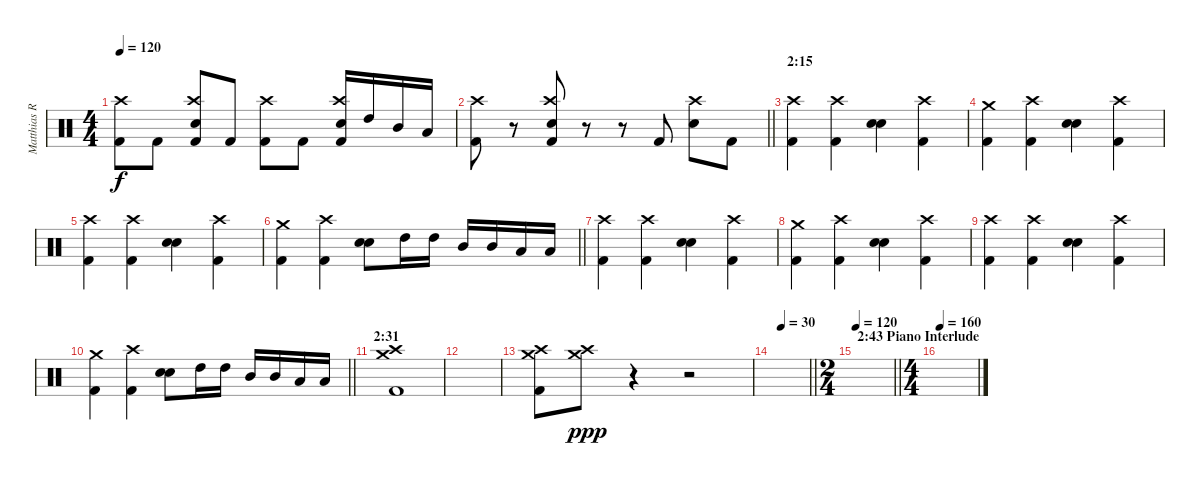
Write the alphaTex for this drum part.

\track ("Matthias R." "Matthias R") {instrument percussion}
\staff {score}
\articulation defaults
\ts (4 4)
\tempo 120
\clef neutral
\ks c
("Kick (hit) 2" "Crash high (hit)").8{dy f} "Kick (hit) 2".8 ("Kick (hit) 2" "Snare (hit) 2" "Crash high (hit)").8 "Kick (hit) 2".8 ("Kick (hit) 2" "Crash high (hit)").8 "Kick (hit) 2".8 ("Kick (hit) 2" "Snare (hit) 2" "Crash high (hit)").16 "High Tom (hit)".16 "Mid Tom (hit)".16 "Low Tom (hit)".16 |
\barLineRight lightlight
("Kick (hit) 2" "Crash high (hit)").8 r.8 ("Kick (hit) 2" "Snare (hit) 2" "Crash high (hit)").8 r.8 r.8 "Kick (hit) 2".8 ("Snare (hit) 2" "Crash high (hit)").8 "Kick (hit) 2".8 |
\section ("" "2:15")
("Kick (hit) 2" "Crash high (hit)").4 ("Kick (hit) 2" "Crash high (hit)").4 ("Snare (hit) 2" "Electric Snare (hit)").4 ("Kick (hit) 2" "Crash high (hit)").4 |
("Kick (hit) 2" "Crash medium (hit)").4 ("Kick (hit) 2" "Crash high (hit)").4 ("Snare (hit) 2" "Electric Snare (hit)").4 ("Kick (hit) 2" "Crash high (hit)").4 |
("Kick (hit) 2" "Crash high (hit)").4 ("Kick (hit) 2" "Crash high (hit)").4 ("Snare (hit) 2" "Electric Snare (hit)").4 ("Kick (hit) 2" "Crash high (hit)").4 |
\barLineRight lightlight
("Kick (hit) 2" "Crash medium (hit)").4 ("Kick (hit) 2" "Crash high (hit)").4 ("Snare (hit) 2" "Snare (hit) 2").8{bu 60} "High Tom (hit)".16 "High Tom (hit)".16 "Mid Tom (hit)".16 "Mid Tom (hit)".16 "Low Tom (hit)".16 "Low Tom (hit)".16 |
("Kick (hit) 2" "Crash high (hit)").4 ("Kick (hit) 2" "Crash high (hit)").4 ("Snare (hit) 2" "Electric Snare (hit)").4 ("Kick (hit) 2" "Crash high (hit)").4 |
("Kick (hit) 2" "Crash medium (hit)").4 ("Kick (hit) 2" "Crash high (hit)").4 ("Snare (hit) 2" "Electric Snare (hit)").4 ("Kick (hit) 2" "Crash high (hit)").4 |
("Kick (hit) 2" "Crash high (hit)").4 ("Kick (hit) 2" "Crash high (hit)").4 ("Snare (hit) 2" "Electric Snare (hit)").4 ("Kick (hit) 2" "Crash high (hit)").4 |
\barLineRight lightlight
("Kick (hit) 2" "Crash medium (hit)").4 ("Kick (hit) 2" "Crash high (hit)").4 ("Snare (hit) 2" "Snare (hit) 2").8{bu 60} "High Tom (hit)".16 "High Tom (hit)".16 "Mid Tom (hit)".16 "Mid Tom (hit)".16 "Low Tom (hit)".16 "Low Tom (hit)".16 |
\section ("" "2:31")
("Kick (hit) 2" "Crash high (hit)" "Crash medium (hit)").1 |
|
("Kick (hit) 2" "Crash high (hit)" "Crash medium (hit)").8 ("Crash high (hit)" "Crash medium (hit)").8{dy ppp} r.4 r.2 |
\tempo (30 0.25)
\barLineRight lightlight
|
\ts (2 4)
\section ("" "2:43 Piano Interlude")
\tempo 120
\barLineRight lightlight
|
\ts (4 4)
\tempo 160
